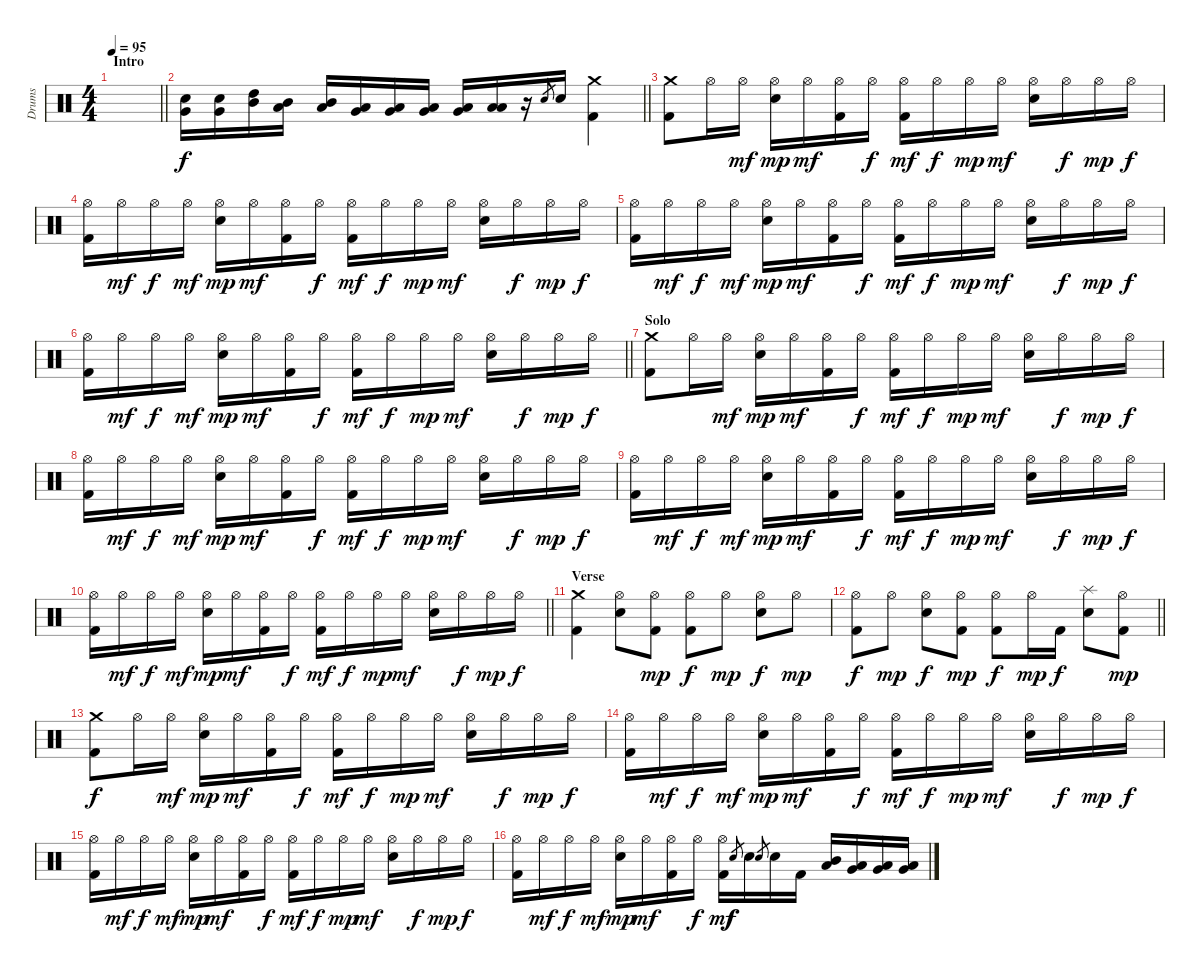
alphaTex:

\track ("Drums" "Drums") {instrument percussion}
\staff {score}
\articulation defaults
\ts (4 4)
\section ("" "Intro")
\tempo 95
\clef neutral
\barLineRight lightlight
\ks c
|
\barLineRight lightlight
("Very Low Tom (hit)" "Snare (hit) 2").16 ("Very Low Tom (hit)" "Snare (hit) 2").16 ("High Tom (hit)" "Mid Tom (hit)").16 ("Mid Tom (hit)" "Low Tom (hit)").16 ("Mid Tom (hit)" "Low Tom (hit)").16 ("Low Tom (hit)" "Very Low Tom (hit)").16 ("Low Tom (hit)" "Very Low Tom (hit)").16 ("Very Low Tom (hit)" "Low Floor Tom (hit)").16 ("Very Low Tom (hit)" "Low Floor Tom (hit)").16 ("Low Floor Tom (hit)" "Low Floor Tom (hit)").16 r.16 "Electric Snare (hit)".8{gr} "Snare (hit) 2".16 ("Crash medium (hit)" "Kick (hit) 2").4 |
("Crash medium (hit)" "Kick (hit) 2").8 "Hi-Hat (open)".16 "Hi-Hat (open)".16{dy mf} ("Hi-Hat (open)" "Snare (hit) 2").16{dy mp} "Hi-Hat (open)".16{dy mf} ("Hi-Hat (open)" "Kick (hit) 2").16 "Hi-Hat (open)".16{dy f} ("Hi-Hat (open)" "Kick (hit) 2").16{dy mf} "Hi-Hat (open)".16{dy f} "Hi-Hat (open)".16{dy mp} "Hi-Hat (open)".16{dy mf} ("Hi-Hat (open)" "Snare (hit) 2").16 "Hi-Hat (open)".16{dy f} "Hi-Hat (open)".16{dy mp} "Hi-Hat (open)".16{dy f} |
("Hi-Hat (open)" "Kick (hit) 2").16 "Hi-Hat (open)".16{dy mf} "Hi-Hat (open)".16{dy f} "Hi-Hat (open)".16{dy mf} ("Hi-Hat (open)" "Snare (hit) 2").16{dy mp} "Hi-Hat (open)".16{dy mf} ("Hi-Hat (open)" "Kick (hit) 2").16 "Hi-Hat (open)".16{dy f} ("Hi-Hat (open)" "Kick (hit) 2").16{dy mf} "Hi-Hat (open)".16{dy f} "Hi-Hat (open)".16{dy mp} "Hi-Hat (open)".16{dy mf} ("Hi-Hat (open)" "Snare (hit) 2").16 "Hi-Hat (open)".16{dy f} "Hi-Hat (open)".16{dy mp} "Hi-Hat (open)".16{dy f} |
("Hi-Hat (open)" "Kick (hit) 2").16 "Hi-Hat (open)".16{dy mf} "Hi-Hat (open)".16{dy f} "Hi-Hat (open)".16{dy mf} ("Hi-Hat (open)" "Snare (hit) 2").16{dy mp} "Hi-Hat (open)".16{dy mf} ("Hi-Hat (open)" "Kick (hit) 2").16 "Hi-Hat (open)".16{dy f} ("Hi-Hat (open)" "Kick (hit) 2").16{dy mf} "Hi-Hat (open)".16{dy f} "Hi-Hat (open)".16{dy mp} "Hi-Hat (open)".16{dy mf} ("Hi-Hat (open)" "Snare (hit) 2").16 "Hi-Hat (open)".16{dy f} "Hi-Hat (open)".16{dy mp} "Hi-Hat (open)".16{dy f} |
\barLineRight lightlight
("Hi-Hat (open)" "Kick (hit) 2").16 "Hi-Hat (open)".16{dy mf} "Hi-Hat (open)".16{dy f} "Hi-Hat (open)".16{dy mf} ("Hi-Hat (open)" "Snare (hit) 2").16{dy mp} "Hi-Hat (open)".16{dy mf} ("Hi-Hat (open)" "Kick (hit) 2").16 "Hi-Hat (open)".16{dy f} ("Hi-Hat (open)" "Kick (hit) 2").16{dy mf} "Hi-Hat (open)".16{dy f} "Hi-Hat (open)".16{dy mp} "Hi-Hat (open)".16{dy mf} ("Hi-Hat (open)" "Snare (hit) 2").16 "Hi-Hat (open)".16{dy f} "Hi-Hat (open)".16{dy mp} "Hi-Hat (open)".16{dy f} |
\section ("" "Solo")
("Crash medium (hit)" "Kick (hit) 2").8 "Hi-Hat (open)".16 "Hi-Hat (open)".16{dy mf} ("Hi-Hat (open)" "Snare (hit) 2").16{dy mp} "Hi-Hat (open)".16{dy mf} ("Hi-Hat (open)" "Kick (hit) 2").16 "Hi-Hat (open)".16{dy f} ("Hi-Hat (open)" "Kick (hit) 2").16{dy mf} "Hi-Hat (open)".16{dy f} "Hi-Hat (open)".16{dy mp} "Hi-Hat (open)".16{dy mf} ("Hi-Hat (open)" "Snare (hit) 2").16 "Hi-Hat (open)".16{dy f} "Hi-Hat (open)".16{dy mp} "Hi-Hat (open)".16{dy f} |
("Hi-Hat (open)" "Kick (hit) 2").16 "Hi-Hat (open)".16{dy mf} "Hi-Hat (open)".16{dy f} "Hi-Hat (open)".16{dy mf} ("Hi-Hat (open)" "Snare (hit) 2").16{dy mp} "Hi-Hat (open)".16{dy mf} ("Hi-Hat (open)" "Kick (hit) 2").16 "Hi-Hat (open)".16{dy f} ("Hi-Hat (open)" "Kick (hit) 2").16{dy mf} "Hi-Hat (open)".16{dy f} "Hi-Hat (open)".16{dy mp} "Hi-Hat (open)".16{dy mf} ("Hi-Hat (open)" "Snare (hit) 2").16 "Hi-Hat (open)".16{dy f} "Hi-Hat (open)".16{dy mp} "Hi-Hat (open)".16{dy f} |
("Hi-Hat (open)" "Kick (hit) 2").16 "Hi-Hat (open)".16{dy mf} "Hi-Hat (open)".16{dy f} "Hi-Hat (open)".16{dy mf} ("Hi-Hat (open)" "Snare (hit) 2").16{dy mp} "Hi-Hat (open)".16{dy mf} ("Hi-Hat (open)" "Kick (hit) 2").16 "Hi-Hat (open)".16{dy f} ("Hi-Hat (open)" "Kick (hit) 2").16{dy mf} "Hi-Hat (open)".16{dy f} "Hi-Hat (open)".16{dy mp} "Hi-Hat (open)".16{dy mf} ("Hi-Hat (open)" "Snare (hit) 2").16 "Hi-Hat (open)".16{dy f} "Hi-Hat (open)".16{dy mp} "Hi-Hat (open)".16{dy f} |
\barLineRight lightlight
("Hi-Hat (open)" "Kick (hit) 2").16 "Hi-Hat (open)".16{dy mf} "Hi-Hat (open)".16{dy f} "Hi-Hat (open)".16{dy mf} ("Hi-Hat (open)" "Snare (hit) 2").16{dy mp} "Hi-Hat (open)".16{dy mf} ("Hi-Hat (open)" "Kick (hit) 2").16 "Hi-Hat (open)".16{dy f} ("Hi-Hat (open)" "Kick (hit) 2").16{dy mf} "Hi-Hat (open)".16{dy f} "Hi-Hat (open)".16{dy mp} "Hi-Hat (open)".16{dy mf} ("Hi-Hat (open)" "Snare (hit) 2").16 "Hi-Hat (open)".16{dy f} "Hi-Hat (open)".16{dy mp} "Hi-Hat (open)".16{dy f} |
\section ("" "Verse")
("Crash medium (hit)" "Kick (hit) 2").4 ("Hi-Hat (open)" "Snare (hit) 2").8 ("Hi-Hat (open)" "Kick (hit) 2").8{dy mp} ("Hi-Hat (open)" "Kick (hit) 2").8{dy f} "Hi-Hat (open)".8{dy mp} ("Hi-Hat (open)" "Snare (hit) 2").8{dy f} "Hi-Hat (open)".8{dy mp} |
\barLineRight lightlight
("Hi-Hat (open)" "Kick (hit) 2").8{dy f} "Hi-Hat (open)".8{dy mp} ("Hi-Hat (open)" "Snare (hit) 2").8{dy f} ("Hi-Hat (open)" "Kick (hit) 2").8{dy mp} ("Hi-Hat (open)" "Kick (hit) 2").8{dy f} "Hi-Hat (open)".16{dy mp} "Kick (hit) 2".16{dy f} ("Splash (hit)" "Snare (hit) 2").8 ("Hi-Hat (open)" "Kick (hit) 2").8{dy mp} |
("Crash medium (hit)" "Kick (hit) 2").8{dy f} "Hi-Hat (open)".16 "Hi-Hat (open)".16{dy mf} ("Hi-Hat (open)" "Snare (hit) 2").16{dy mp} "Hi-Hat (open)".16{dy mf} ("Hi-Hat (open)" "Kick (hit) 2").16 "Hi-Hat (open)".16{dy f} ("Hi-Hat (open)" "Kick (hit) 2").16{dy mf} "Hi-Hat (open)".16{dy f} "Hi-Hat (open)".16{dy mp} "Hi-Hat (open)".16{dy mf} ("Hi-Hat (open)" "Snare (hit) 2").16 "Hi-Hat (open)".16{dy f} "Hi-Hat (open)".16{dy mp} "Hi-Hat (open)".16{dy f} |
("Hi-Hat (open)" "Kick (hit) 2").16 "Hi-Hat (open)".16{dy mf} "Hi-Hat (open)".16{dy f} "Hi-Hat (open)".16{dy mf} ("Hi-Hat (open)" "Snare (hit) 2").16{dy mp} "Hi-Hat (open)".16{dy mf} ("Hi-Hat (open)" "Kick (hit) 2").16 "Hi-Hat (open)".16{dy f} ("Hi-Hat (open)" "Kick (hit) 2").16{dy mf} "Hi-Hat (open)".16{dy f} "Hi-Hat (open)".16{dy mp} "Hi-Hat (open)".16{dy mf} ("Hi-Hat (open)" "Snare (hit) 2").16 "Hi-Hat (open)".16{dy f} "Hi-Hat (open)".16{dy mp} "Hi-Hat (open)".16{dy f} |
("Hi-Hat (open)" "Kick (hit) 2").16 "Hi-Hat (open)".16{dy mf} "Hi-Hat (open)".16{dy f} "Hi-Hat (open)".16{dy mf} ("Hi-Hat (open)" "Snare (hit) 2").16{dy mp} "Hi-Hat (open)".16{dy mf} ("Hi-Hat (open)" "Kick (hit) 2").16 "Hi-Hat (open)".16{dy f} ("Hi-Hat (open)" "Kick (hit) 2").16{dy mf} "Hi-Hat (open)".16{dy f} "Hi-Hat (open)".16{dy mp} "Hi-Hat (open)".16{dy mf} ("Hi-Hat (open)" "Snare (hit) 2").16 "Hi-Hat (open)".16{dy f} "Hi-Hat (open)".16{dy mp} "Hi-Hat (open)".16{dy f} |
("Hi-Hat (open)" "Kick (hit) 2").16 "Hi-Hat (open)".16{dy mf} "Hi-Hat (open)".16{dy f} "Hi-Hat (open)".16{dy mf} ("Hi-Hat (open)" "Snare (hit) 2").16{dy mp} "Hi-Hat (open)".16{dy mf} ("Hi-Hat (open)" "Kick (hit) 2").16 "Hi-Hat (open)".16{dy f} ("Hi-Hat (open)" "Kick (hit) 2").16{dy mf} "Electric Snare (hit)".8{gr dy f} "Snare (hit) 2".16 "Electric Snare (hit)".8{gr} "Snare (hit) 2".16 "Kick (hit) 2".16 ("Mid Tom (hit)" "Low Tom (hit)").16 ("Low Tom (hit)" "Very Low Tom (hit)").16 ("Low Tom (hit)" "Very Low Tom (hit)").16 ("Very Low Tom (hit)" "Low Floor Tom (hit)").16
